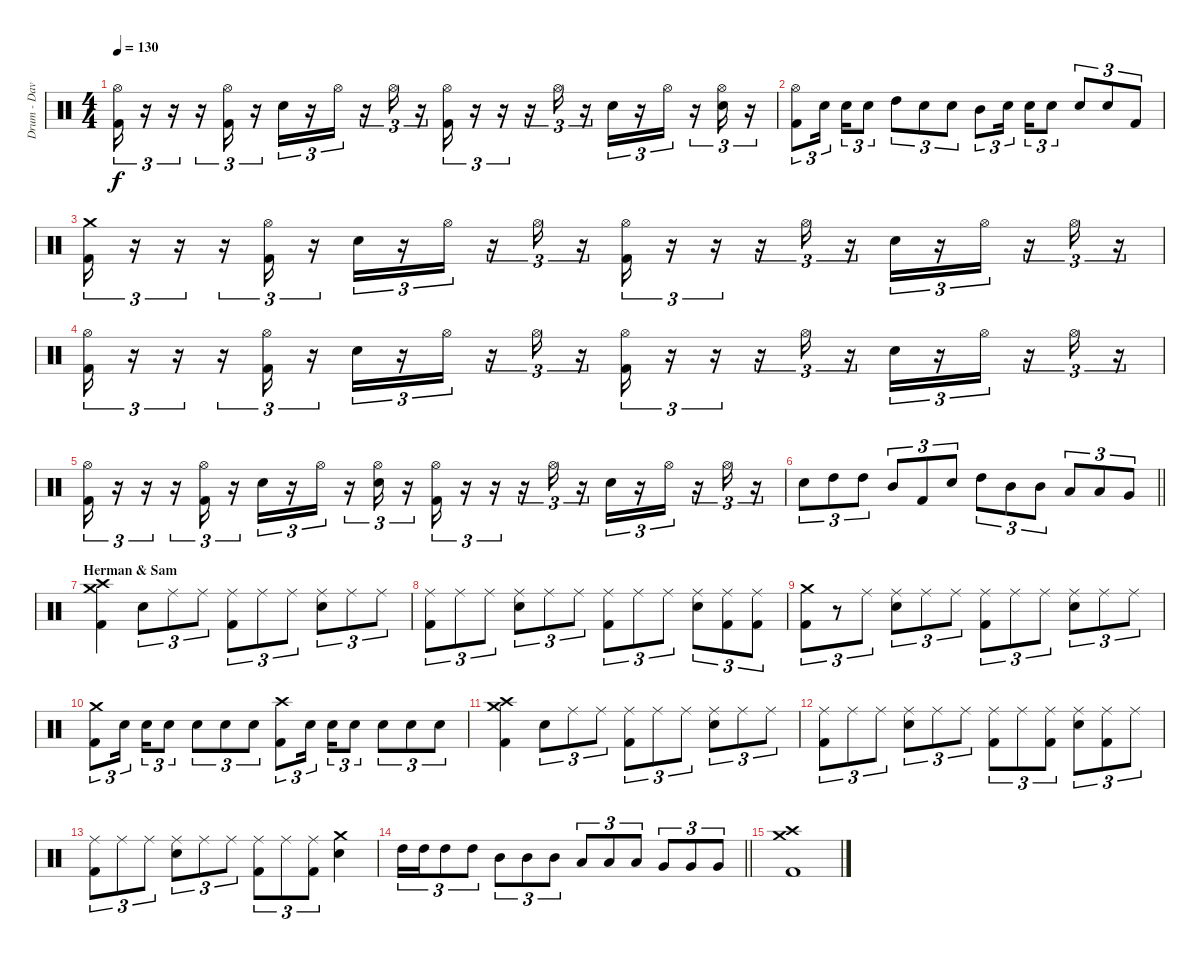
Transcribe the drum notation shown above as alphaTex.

\track ("Drum - Dave Mackintosh" "Drum - Dav") {instrument percussion}
\staff {score}
\articulation defaults
\ts (4 4)
\tempo 130
\clef neutral
\ks c
("Hi-Hat (open)" "Kick (hit) 2").16{tu (3 2) dy f} r.16{tu (3 2)} r.16{tu (3 2)} r.16{tu (3 2)} ("Hi-Hat (open)" "Kick (hit) 2").16{tu (3 2)} r.16{tu (3 2)} "Electric Snare (hit)".16{tu (3 2)} r.16{tu (3 2)} "Hi-Hat (open)".16{tu (3 2)} r.16{tu (3 2)} "Hi-Hat (open)".16{tu (3 2)} r.16{tu (3 2)} ("Hi-Hat (open)" "Kick (hit) 2").16{tu (3 2)} r.16{tu (3 2)} r.16{tu (3 2)} r.16{tu (3 2)} "Hi-Hat (open)".16{tu (3 2)} r.16{tu (3 2)} "Electric Snare (hit)".16{tu (3 2)} r.16{tu (3 2)} "Hi-Hat (open)".16{tu (3 2)} r.16{tu (3 2)} ("Hi-Hat (open)" "Electric Snare (hit)").16{tu (3 2)} r.16{tu (3 2)} |
("Hi-Hat (open)" "Kick (hit) 2").8{tu (3 2)} "Electric Snare (hit)".16{tu (3 2) beam splitsecondary} "Electric Snare (hit)".16{tu (3 2)} "Electric Snare (hit)".8{tu (3 2)} "High Tom (hit)".8{tu (3 2)} "Electric Snare (hit)".8{tu (3 2)} "Electric Snare (hit)".8{tu (3 2)} "Mid Tom (hit)".8{tu (3 2)} "Electric Snare (hit)".16{tu (3 2) beam splitsecondary} "Electric Snare (hit)".16{tu (3 2)} "Electric Snare (hit)".8{tu (3 2)} "Electric Snare (hit)".8{tu (3 2)} "Electric Snare (hit)".8{tu (3 2)} "Kick (hit) 2".8{tu (3 2)} |
("Crash medium (hit)" "Kick (hit) 2").16{tu (3 2)} r.16{tu (3 2)} r.16{tu (3 2)} r.16{tu (3 2)} ("Hi-Hat (open)" "Kick (hit) 2").16{tu (3 2)} r.16{tu (3 2)} "Electric Snare (hit)".16{tu (3 2)} r.16{tu (3 2)} "Hi-Hat (open)".16{tu (3 2)} r.16{tu (3 2)} "Hi-Hat (open)".16{tu (3 2)} r.16{tu (3 2)} ("Hi-Hat (open)" "Kick (hit) 2").16{tu (3 2)} r.16{tu (3 2)} r.16{tu (3 2)} r.16{tu (3 2)} "Hi-Hat (open)".16{tu (3 2)} r.16{tu (3 2)} "Electric Snare (hit)".16{tu (3 2)} r.16{tu (3 2)} "Hi-Hat (open)".16{tu (3 2)} r.16{tu (3 2)} "Hi-Hat (open)".16{tu (3 2)} r.16{tu (3 2)} |
("Hi-Hat (open)" "Kick (hit) 2").16{tu (3 2)} r.16{tu (3 2)} r.16{tu (3 2)} r.16{tu (3 2)} ("Hi-Hat (open)" "Kick (hit) 2").16{tu (3 2)} r.16{tu (3 2)} "Electric Snare (hit)".16{tu (3 2)} r.16{tu (3 2)} "Hi-Hat (open)".16{tu (3 2)} r.16{tu (3 2)} "Hi-Hat (open)".16{tu (3 2)} r.16{tu (3 2)} ("Hi-Hat (open)" "Kick (hit) 2").16{tu (3 2)} r.16{tu (3 2)} r.16{tu (3 2)} r.16{tu (3 2)} "Hi-Hat (open)".16{tu (3 2)} r.16{tu (3 2)} "Electric Snare (hit)".16{tu (3 2)} r.16{tu (3 2)} "Hi-Hat (open)".16{tu (3 2)} r.16{tu (3 2)} "Hi-Hat (open)".16{tu (3 2)} r.16{tu (3 2)} |
("Hi-Hat (open)" "Kick (hit) 2").16{tu (3 2)} r.16{tu (3 2)} r.16{tu (3 2)} r.16{tu (3 2)} ("Hi-Hat (open)" "Kick (hit) 2").16{tu (3 2)} r.16{tu (3 2)} "Electric Snare (hit)".16{tu (3 2)} r.16{tu (3 2)} "Hi-Hat (open)".16{tu (3 2)} r.16{tu (3 2)} ("Hi-Hat (open)" "Electric Snare (hit)").16{tu (3 2)} r.16{tu (3 2)} ("Hi-Hat (open)" "Kick (hit) 2").16{tu (3 2)} r.16{tu (3 2)} r.16{tu (3 2)} r.16{tu (3 2)} "Hi-Hat (open)".16{tu (3 2)} r.16{tu (3 2)} "Electric Snare (hit)".16{tu (3 2)} r.16{tu (3 2)} "Hi-Hat (open)".16{tu (3 2)} r.16{tu (3 2)} "Hi-Hat (open)".16{tu (3 2)} r.16{tu (3 2)} |
\barLineRight lightlight "Electric Snare (hit)".8{tu (3 2)} "High Tom (hit)".8{tu (3 2)} "High Tom (hit)".8{tu (3 2)} "Mid Tom (hit)".8{tu (3 2)} "Kick (hit) 2".8{tu (3 2)} "Electric Snare (hit)".8{tu (3 2)} "High Tom (hit)".8{tu (3 2)} "Mid Tom (hit)".8{tu (3 2)} "Mid Tom (hit)".8{tu (3 2)} "Low Tom (hit)".8{tu (3 2)} "Low Tom (hit)".8{tu (3 2)} "Very Low Tom (hit)".8{tu (3 2)}
|
\section ("" "Herman & Sam")
("Crash medium (hit)" "Crash high (hit)" "Kick (hit) 2").4 "Electric Snare (hit)".8{tu (3 2)} "Ride (middle)".8{tu (3 2)} "Ride (middle)".8{tu (3 2)} ("Ride (middle)" "Kick (hit) 2").8{tu (3 2)} "Ride (middle)".8{tu (3 2)} "Ride (middle)".8{tu (3 2)} ("Ride (middle)" "Electric Snare (hit)").8{tu (3 2)} "Ride (middle)".8{tu (3 2)} "Ride (middle)".8{tu (3 2)} |
("Ride (middle)" "Kick (hit) 2").8{tu (3 2)} "Ride (middle)".8{tu (3 2)} "Ride (middle)".8{tu (3 2)} ("Ride (middle)" "Electric Snare (hit)").8{tu (3 2)} "Ride (middle)".8{tu (3 2)} "Ride (middle)".8{tu (3 2)} ("Ride (middle)" "Kick (hit) 2").8{tu (3 2)} "Ride (middle)".8{tu (3 2)} "Ride (middle)".8{tu (3 2)} ("Ride (middle)" "Electric Snare (hit)").8{tu (3 2)} ("Ride (middle)" "Kick (hit) 2").8{tu (3 2)} ("Ride (middle)" "Kick (hit) 2").8{tu (3 2)} |
("Crash medium (hit)" "Kick (hit) 2").8{tu (3 2)} r.8{tu (3 2)} "Ride (middle)".8{tu (3 2)} ("Ride (middle)" "Electric Snare (hit)").8{tu (3 2)} "Ride (middle)".8{tu (3 2)} "Ride (middle)".8{tu (3 2)} ("Ride (middle)" "Kick (hit) 2").8{tu (3 2)} "Ride (middle)".8{tu (3 2)} "Ride (middle)".8{tu (3 2)} ("Ride (middle)" "Electric Snare (hit)").8{tu (3 2)} "Ride (middle)".8{tu (3 2)} "Ride (middle)".8{tu (3 2)} |
("Crash medium (hit)" "Kick (hit) 2").8{tu (3 2)} "Electric Snare (hit)".16{tu (3 2) beam splitsecondary} "Electric Snare (hit)".16{tu (3 2)} "Electric Snare (hit)".8{tu (3 2)} "Electric Snare (hit)".8{tu (3 2)} "Electric Snare (hit)".8{tu (3 2)} "Electric Snare (hit)".8{tu (3 2)} ("Crash high (hit)" "Kick (hit) 2").8{tu (3 2)} "Electric Snare (hit)".16{tu (3 2) beam splitsecondary} "Electric Snare (hit)".16{tu (3 2)} "Electric Snare (hit)".8{tu (3 2)} "Electric Snare (hit)".8{tu (3 2)} "Electric Snare (hit)".8{tu (3 2)} "Electric Snare (hit)".8{tu (3 2)} |
("Crash medium (hit)" "Crash high (hit)" "Kick (hit) 2").4 "Electric Snare (hit)".8{tu (3 2)} "Ride (middle)".8{tu (3 2)} "Ride (middle)".8{tu (3 2)} ("Ride (middle)" "Kick (hit) 2").8{tu (3 2)} "Ride (middle)".8{tu (3 2)} "Ride (middle)".8{tu (3 2)} ("Ride (middle)" "Electric Snare (hit)").8{tu (3 2)} "Ride (middle)".8{tu (3 2)} "Ride (middle)".8{tu (3 2)} |
("Ride (middle)" "Kick (hit) 2").8{tu (3 2)} "Ride (middle)".8{tu (3 2)} "Ride (middle)".8{tu (3 2)} ("Ride (middle)" "Electric Snare (hit)").8{tu (3 2)} "Ride (middle)".8{tu (3 2)} "Ride (middle)".8{tu (3 2)} ("Ride (middle)" "Kick (hit) 2").8{tu (3 2)} "Ride (middle)".8{tu (3 2)} ("Ride (middle)" "Kick (hit) 2").8{tu (3 2)} ("Ride (middle)" "Electric Snare (hit)").8{tu (3 2)} ("Ride (middle)" "Kick (hit) 2").8{tu (3 2)} "Ride (middle)".8{tu (3 2)} |
("Ride (middle)" "Kick (hit) 2").8{tu (3 2)} "Ride (middle)".8{tu (3 2)} "Ride (middle)".8{tu (3 2)} ("Ride (middle)" "Electric Snare (hit)").8{tu (3 2)} "Ride (middle)".8{tu (3 2)} "Ride (middle)".8{tu (3 2)} ("Ride (middle)" "Kick (hit) 2").8{tu (3 2)} "Ride (middle)".8{tu (3 2)} ("Ride (middle)" "Kick (hit) 2").8{tu (3 2)} ("Crash medium (hit)" "Electric Snare (hit)").4 |
\barLineRight lightlight "High Tom (hit)".16{tu (3 2)} "High Tom (hit)".16{tu (3 2)} "High Tom (hit)".8{tu (3 2)} "High Tom (hit)".8{tu (3 2)} "Mid Tom (hit)".8{tu (3 2)} "Mid Tom (hit)".8{tu (3 2)} "Mid Tom (hit)".8{tu (3 2)} "Low Tom (hit)".8{tu (3 2)} "Low Tom (hit)".8{tu (3 2)} "Low Tom (hit)".8{tu (3 2)} "Very Low Tom (hit)".8{tu (3 2)} "Very Low Tom (hit)".8{tu (3 2)} "Very Low Tom (hit)".8{tu (3 2)}
|
("Crash medium (hit)" "Crash high (hit)" "Kick (hit) 2").1
